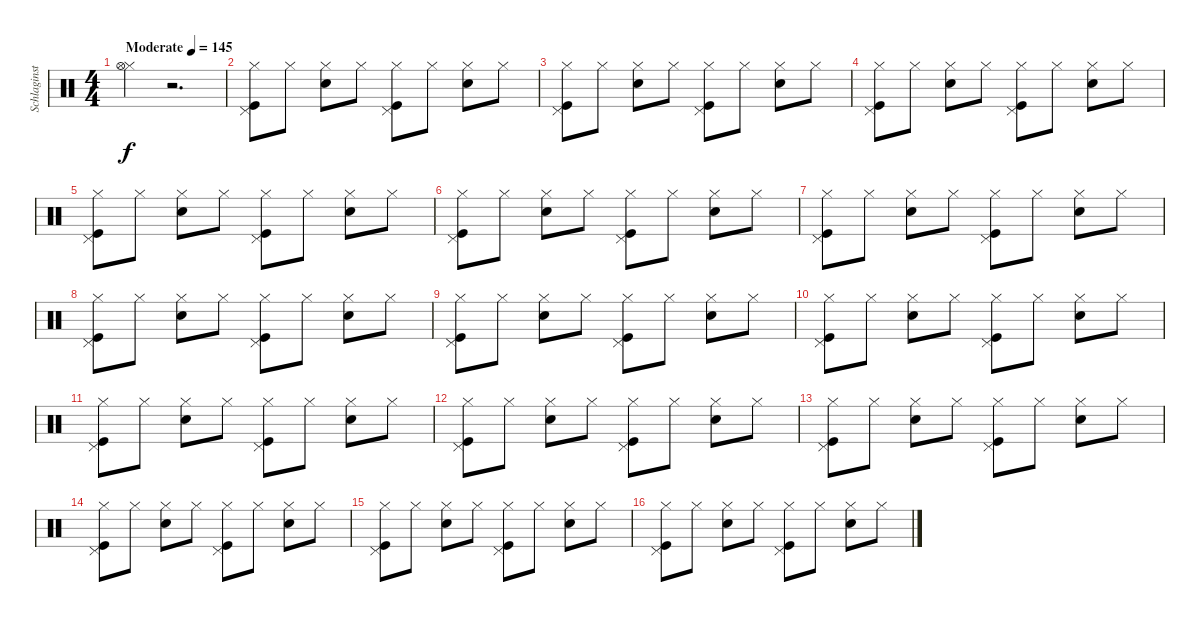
\track ("Schlaginstrumente - Auswahl" "Schlaginst") {instrument percussion}
\staff {score}
\articulation defaults
\ts (4 4)
\tempo (145 "Moderate")
\clef neutral
\ks c
("Hi-Hat (closed)" "Hi-Hat (open)").4{dy f} r.2{d} |
("Kick (hit)" "Pedal Hi-Hat (hit)" "Hi-Hat (closed)").8 "Hi-Hat (closed)".8 ("Snare (hit) 2" "Hi-Hat (closed)").8 "Hi-Hat (closed)".8 ("Kick (hit)" "Pedal Hi-Hat (hit)" "Hi-Hat (closed)").8 "Hi-Hat (closed)".8 ("Snare (hit) 2" "Hi-Hat (closed)").8 "Hi-Hat (closed)".8 |
("Kick (hit)" "Pedal Hi-Hat (hit)" "Hi-Hat (closed)").8 "Hi-Hat (closed)".8 ("Snare (hit) 2" "Hi-Hat (closed)").8 "Hi-Hat (closed)".8 ("Kick (hit)" "Pedal Hi-Hat (hit)" "Hi-Hat (closed)").8 "Hi-Hat (closed)".8 ("Snare (hit) 2" "Hi-Hat (closed)").8 "Hi-Hat (closed)".8 |
("Kick (hit)" "Pedal Hi-Hat (hit)" "Hi-Hat (closed)").8 "Hi-Hat (closed)".8 ("Snare (hit) 2" "Hi-Hat (closed)").8 "Hi-Hat (closed)".8 ("Kick (hit)" "Pedal Hi-Hat (hit)" "Hi-Hat (closed)").8 "Hi-Hat (closed)".8 ("Snare (hit) 2" "Hi-Hat (closed)").8 "Hi-Hat (closed)".8 |
("Kick (hit)" "Pedal Hi-Hat (hit)" "Hi-Hat (closed)").8 "Hi-Hat (closed)".8 ("Snare (hit) 2" "Hi-Hat (closed)").8 "Hi-Hat (closed)".8 ("Kick (hit)" "Pedal Hi-Hat (hit)" "Hi-Hat (closed)").8 "Hi-Hat (closed)".8 ("Snare (hit) 2" "Hi-Hat (closed)").8 "Hi-Hat (closed)".8 |
("Kick (hit)" "Pedal Hi-Hat (hit)" "Hi-Hat (closed)").8 "Hi-Hat (closed)".8 ("Snare (hit) 2" "Hi-Hat (closed)").8 "Hi-Hat (closed)".8 ("Kick (hit)" "Pedal Hi-Hat (hit)" "Hi-Hat (closed)").8 "Hi-Hat (closed)".8 ("Snare (hit) 2" "Hi-Hat (closed)").8 "Hi-Hat (closed)".8 |
("Kick (hit)" "Pedal Hi-Hat (hit)" "Hi-Hat (closed)").8 "Hi-Hat (closed)".8 ("Snare (hit) 2" "Hi-Hat (closed)").8 "Hi-Hat (closed)".8 ("Kick (hit)" "Pedal Hi-Hat (hit)" "Hi-Hat (closed)").8 "Hi-Hat (closed)".8 ("Snare (hit) 2" "Hi-Hat (closed)").8 "Hi-Hat (closed)".8 |
("Kick (hit)" "Pedal Hi-Hat (hit)" "Hi-Hat (closed)").8 "Hi-Hat (closed)".8 ("Snare (hit) 2" "Hi-Hat (closed)").8 "Hi-Hat (closed)".8 ("Kick (hit)" "Pedal Hi-Hat (hit)" "Hi-Hat (closed)").8 "Hi-Hat (closed)".8 ("Snare (hit) 2" "Hi-Hat (closed)").8 "Hi-Hat (closed)".8 |
("Kick (hit)" "Pedal Hi-Hat (hit)" "Hi-Hat (closed)").8 "Hi-Hat (closed)".8 ("Snare (hit) 2" "Hi-Hat (closed)").8 "Hi-Hat (closed)".8 ("Kick (hit)" "Pedal Hi-Hat (hit)" "Hi-Hat (closed)").8 "Hi-Hat (closed)".8 ("Snare (hit) 2" "Hi-Hat (closed)").8 "Hi-Hat (closed)".8 |
("Kick (hit)" "Pedal Hi-Hat (hit)" "Hi-Hat (closed)").8 "Hi-Hat (closed)".8 ("Snare (hit) 2" "Hi-Hat (closed)").8 "Hi-Hat (closed)".8 ("Kick (hit)" "Pedal Hi-Hat (hit)" "Hi-Hat (closed)").8 "Hi-Hat (closed)".8 ("Snare (hit) 2" "Hi-Hat (closed)").8 "Hi-Hat (closed)".8 |
("Kick (hit)" "Pedal Hi-Hat (hit)" "Hi-Hat (closed)").8 "Hi-Hat (closed)".8 ("Snare (hit) 2" "Hi-Hat (closed)").8 "Hi-Hat (closed)".8 ("Kick (hit)" "Pedal Hi-Hat (hit)" "Hi-Hat (closed)").8 "Hi-Hat (closed)".8 ("Snare (hit) 2" "Hi-Hat (closed)").8 "Hi-Hat (closed)".8 |
("Kick (hit)" "Pedal Hi-Hat (hit)" "Hi-Hat (closed)").8 "Hi-Hat (closed)".8 ("Snare (hit) 2" "Hi-Hat (closed)").8 "Hi-Hat (closed)".8 ("Kick (hit)" "Pedal Hi-Hat (hit)" "Hi-Hat (closed)").8 "Hi-Hat (closed)".8 ("Snare (hit) 2" "Hi-Hat (closed)").8 "Hi-Hat (closed)".8 |
("Kick (hit)" "Pedal Hi-Hat (hit)" "Hi-Hat (closed)").8 "Hi-Hat (closed)".8 ("Snare (hit) 2" "Hi-Hat (closed)").8 "Hi-Hat (closed)".8 ("Kick (hit)" "Pedal Hi-Hat (hit)" "Hi-Hat (closed)").8 "Hi-Hat (closed)".8 ("Snare (hit) 2" "Hi-Hat (closed)").8 "Hi-Hat (closed)".8 |
("Kick (hit)" "Pedal Hi-Hat (hit)" "Hi-Hat (closed)").8 "Hi-Hat (closed)".8 ("Snare (hit) 2" "Hi-Hat (closed)").8 "Hi-Hat (closed)".8 ("Kick (hit)" "Pedal Hi-Hat (hit)" "Hi-Hat (closed)").8 "Hi-Hat (closed)".8 ("Snare (hit) 2" "Hi-Hat (closed)").8 "Hi-Hat (closed)".8 |
("Kick (hit)" "Pedal Hi-Hat (hit)" "Hi-Hat (closed)").8 "Hi-Hat (closed)".8 ("Snare (hit) 2" "Hi-Hat (closed)").8 "Hi-Hat (closed)".8 ("Kick (hit)" "Pedal Hi-Hat (hit)" "Hi-Hat (closed)").8 "Hi-Hat (closed)".8 ("Snare (hit) 2" "Hi-Hat (closed)").8 "Hi-Hat (closed)".8 |
("Kick (hit)" "Pedal Hi-Hat (hit)" "Hi-Hat (closed)").8 "Hi-Hat (closed)".8 ("Snare (hit) 2" "Hi-Hat (closed)").8 "Hi-Hat (closed)".8 ("Kick (hit)" "Pedal Hi-Hat (hit)" "Hi-Hat (closed)").8 "Hi-Hat (closed)".8 ("Snare (hit) 2" "Hi-Hat (closed)").8 "Hi-Hat (closed)".8
